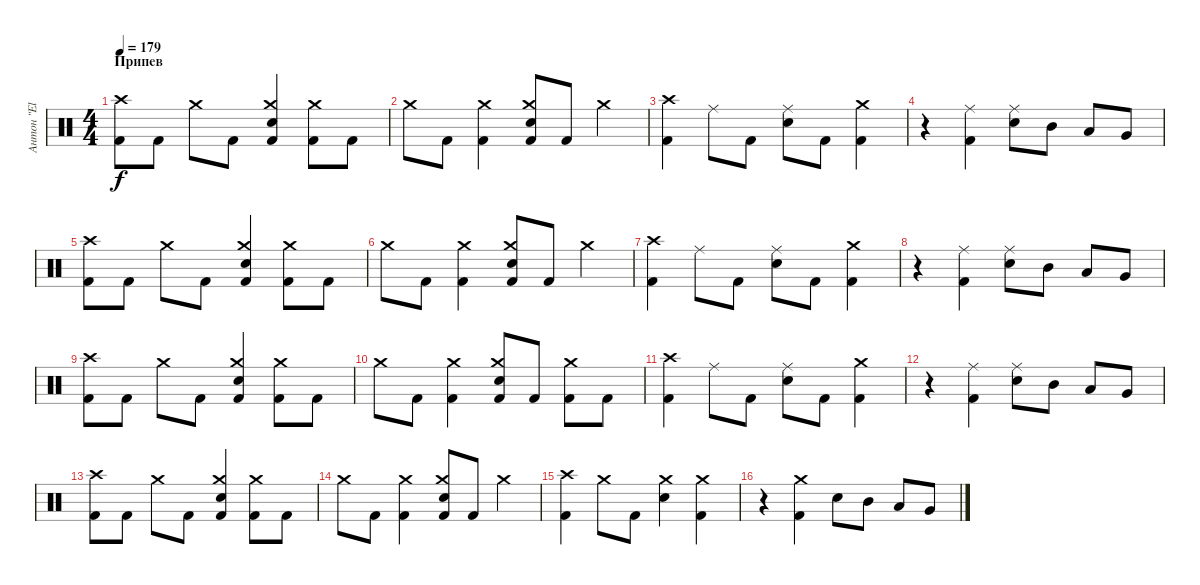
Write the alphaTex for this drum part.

\track ("Антон \"El Bastardo\" Смольянин" "Антон \"El ") {instrument percussion}
\staff {score}
\articulation defaults
\ts (4 4)
\section ("" "Припев")
\tempo 179
\clef neutral
\ks c
("Crash high (hit)" "Kick (hit) 2").8{dy f} "Kick (hit) 2".8 "Crash medium (hit)".8 "Kick (hit) 2".8 ("Crash medium (hit)" "Electric Snare (hit)" "Kick (hit) 2").4 ("Crash medium (hit)" "Kick (hit) 2").8 "Kick (hit) 2".8 |
"Crash medium (hit)".8 "Kick (hit) 2".8 ("Crash medium (hit)" "Kick (hit) 2").4 ("Crash medium (hit)" "Electric Snare (hit)" "Kick (hit) 2").8 "Kick (hit) 2".8 "Crash medium (hit)".4 |
("Crash high (hit)" "Kick (hit) 2").4 "Ride (middle)".8 "Kick (hit) 2".8 ("Ride (middle)" "Electric Snare (hit)").8 "Kick (hit) 2".8 ("Crash medium (hit)" "Kick (hit) 2").4 |
r.4 ("Ride (middle)" "Kick (hit) 2").4 ("Ride (middle)" "Electric Snare (hit)").8 "Mid Tom (hit)".8 "Low Tom (hit)".8 "Very Low Tom (hit)".8 |
("Crash high (hit)" "Kick (hit) 2").8 "Kick (hit) 2".8 "Crash medium (hit)".8 "Kick (hit) 2".8 ("Crash medium (hit)" "Electric Snare (hit)" "Kick (hit) 2").4 ("Crash medium (hit)" "Kick (hit) 2").8 "Kick (hit) 2".8 |
"Crash medium (hit)".8 "Kick (hit) 2".8 ("Crash medium (hit)" "Kick (hit) 2").4 ("Crash medium (hit)" "Electric Snare (hit)" "Kick (hit) 2").8 "Kick (hit) 2".8 "Crash medium (hit)".4 |
("Crash high (hit)" "Kick (hit) 2").4 "Ride (middle)".8 "Kick (hit) 2".8 ("Ride (middle)" "Electric Snare (hit)").8 "Kick (hit) 2".8 ("Crash medium (hit)" "Kick (hit) 2").4 |
r.4 ("Ride (middle)" "Kick (hit) 2").4 ("Ride (middle)" "Electric Snare (hit)").8 "Mid Tom (hit)".8 "Low Tom (hit)".8 "Very Low Tom (hit)".8 |
("Crash high (hit)" "Kick (hit) 2").8 "Kick (hit) 2".8 "Crash medium (hit)".8 "Kick (hit) 2".8 ("Crash medium (hit)" "Electric Snare (hit)" "Kick (hit) 2").4 ("Crash medium (hit)" "Kick (hit) 2").8 "Kick (hit) 2".8 |
"Crash medium (hit)".8 "Kick (hit) 2".8 ("Crash medium (hit)" "Kick (hit) 2").4 ("Crash medium (hit)" "Electric Snare (hit)" "Kick (hit) 2").8 "Kick (hit) 2".8 ("Crash medium (hit)" "Kick (hit) 2").8 "Kick (hit) 2".8 |
("Crash high (hit)" "Kick (hit) 2").4 "Ride (middle)".8 "Kick (hit) 2".8 ("Ride (middle)" "Electric Snare (hit)").8 "Kick (hit) 2".8 ("Crash medium (hit)" "Kick (hit) 2").4 |
r.4 ("Ride (middle)" "Kick (hit) 2").4 ("Ride (middle)" "Electric Snare (hit)").8 "Mid Tom (hit)".8 "Low Tom (hit)".8 "Very Low Tom (hit)".8 |
("Crash high (hit)" "Kick (hit) 2").8 "Kick (hit) 2".8 "Crash medium (hit)".8 "Kick (hit) 2".8 ("Crash medium (hit)" "Electric Snare (hit)" "Kick (hit) 2").4 ("Crash medium (hit)" "Kick (hit) 2").8 "Kick (hit) 2".8 |
"Crash medium (hit)".8 "Kick (hit) 2".8 ("Crash medium (hit)" "Kick (hit) 2").4 ("Crash medium (hit)" "Electric Snare (hit)" "Kick (hit) 2").8 "Kick (hit) 2".8 "Crash medium (hit)".4 |
("Crash high (hit)" "Kick (hit) 2").4 "Crash medium (hit)".8 "Kick (hit) 2".8 ("Crash medium (hit)" "Electric Snare (hit)").4 ("Crash medium (hit)" "Kick (hit) 2").4 |
r.4 ("Crash medium (hit)" "Kick (hit) 2").4 "Electric Snare (hit)".8 "Mid Tom (hit)".8 "Low Tom (hit)".8 "Very Low Tom (hit)".8
